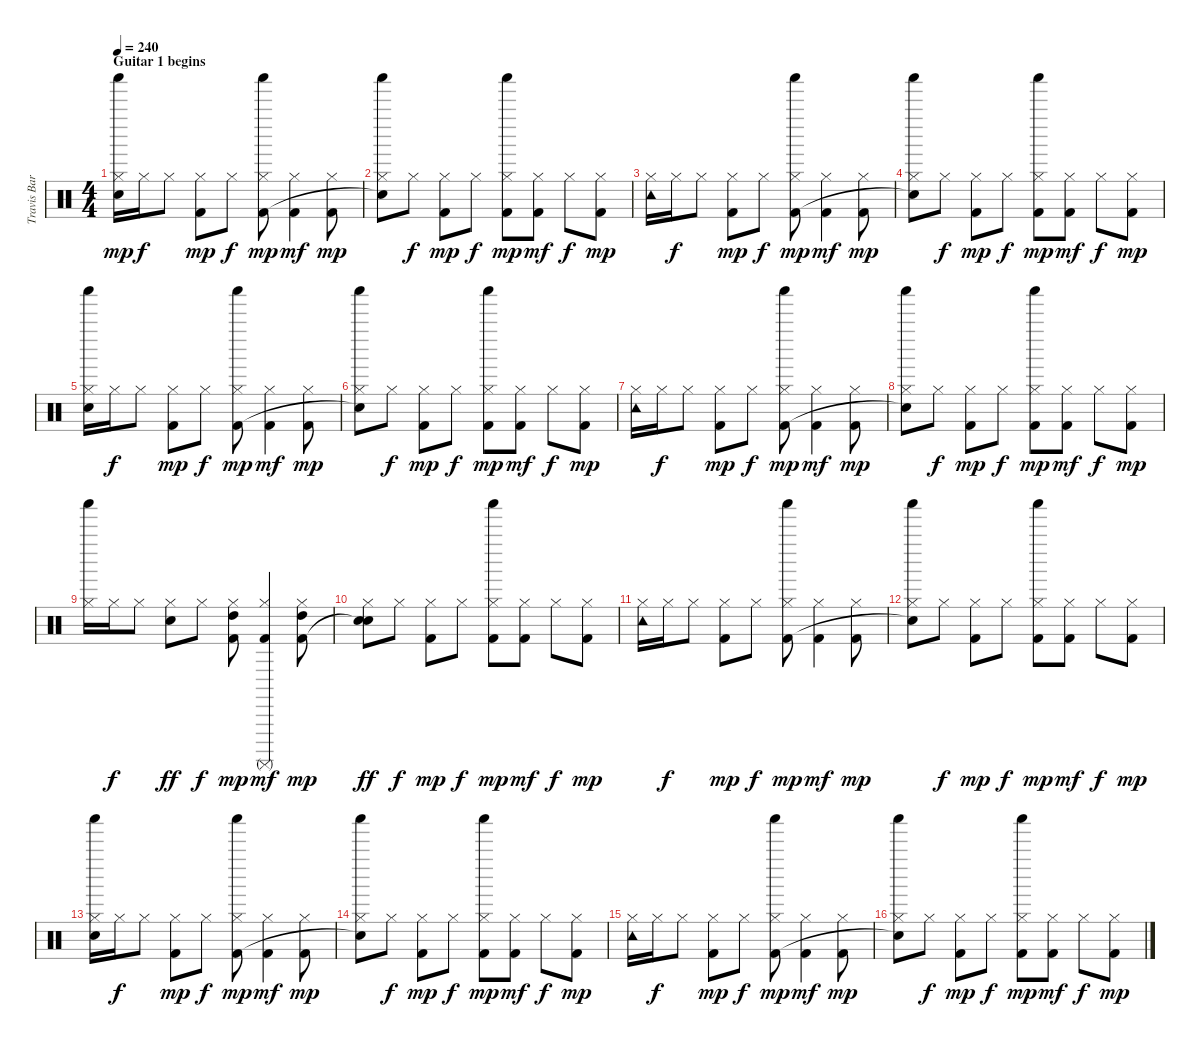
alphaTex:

\track ("Travis Barker - Drums" "Travis Bar") {instrument percussion}
\staff {score}
\articulation defaults
\ts (4 4)
\section ("" "Guitar 1 begins")
\tempo 240
\clef neutral
\ks c
("Hi-Hat (closed)" "Shaker (hit)" "Electric Snare (hit)").16{dy mp} "Hi-Hat (closed)".16{dy f} "Hi-Hat (closed)".8 ("Hi-Hat (closed)" "Kick (hit) 2").8{dy mp} "Hi-Hat (closed)".8{dy f} ("Hi-Hat (closed)" "Shaker (hit)" "Kick (hit) 2").8{dy mp} ("Hi-Hat (closed)" "Kick (hit) 2").4{dy mf} ("Hi-Hat (closed)" "Kick (hit) 2").8{dy mp} |
("Hi-Hat (closed)" "Shaker (hit)" "Snare (hit)"{t}).8 "Hi-Hat (closed)".8{dy f} ("Hi-Hat (closed)" "Kick (hit) 2").8{dy mp} "Hi-Hat (closed)".8{dy f} ("Hi-Hat (closed)" "Shaker (hit)" "Kick (hit) 2").8{dy mp} ("Hi-Hat (closed)" "Kick (hit) 2").8{dy mf} "Hi-Hat (closed)".8{dy f} ("Hi-Hat (closed)" "Kick (hit) 2").8{dy mp} |
("Hi-Hat (closed)" "Tambourine (hit)").16 "Hi-Hat (closed)".16{dy f} "Hi-Hat (closed)".8 ("Hi-Hat (closed)" "Kick (hit) 2").8{dy mp} "Hi-Hat (closed)".8{dy f} ("Hi-Hat (closed)" "Shaker (hit)" "Kick (hit) 2").8{dy mp} ("Hi-Hat (closed)" "Kick (hit) 2").4{dy mf} ("Hi-Hat (closed)" "Kick (hit) 2").8{dy mp} |
("Hi-Hat (closed)" "Shaker (hit)" "Snare (hit)"{t}).8 "Hi-Hat (closed)".8{dy f} ("Hi-Hat (closed)" "Kick (hit) 2").8{dy mp} "Hi-Hat (closed)".8{dy f} ("Hi-Hat (closed)" "Shaker (hit)" "Kick (hit) 2").8{dy mp} ("Hi-Hat (closed)" "Kick (hit) 2").8{dy mf} "Hi-Hat (closed)".8{dy f} ("Hi-Hat (closed)" "Kick (hit) 2").8{dy mp} |
("Hi-Hat (closed)" "Shaker (hit)" "Electric Snare (hit)").16 "Hi-Hat (closed)".16{dy f} "Hi-Hat (closed)".8 ("Hi-Hat (closed)" "Kick (hit) 2").8{dy mp} "Hi-Hat (closed)".8{dy f} ("Hi-Hat (closed)" "Shaker (hit)" "Kick (hit) 2").8{dy mp} ("Hi-Hat (closed)" "Kick (hit) 2").4{dy mf} ("Hi-Hat (closed)" "Kick (hit) 2").8{dy mp} |
("Hi-Hat (closed)" "Shaker (hit)" "Snare (hit)"{t}).8 "Hi-Hat (closed)".8{dy f} ("Hi-Hat (closed)" "Kick (hit) 2").8{dy mp} "Hi-Hat (closed)".8{dy f} ("Hi-Hat (closed)" "Shaker (hit)" "Kick (hit) 2").8{dy mp} ("Hi-Hat (closed)" "Kick (hit) 2").8{dy mf} "Hi-Hat (closed)".8{dy f} ("Hi-Hat (closed)" "Kick (hit) 2").8{dy mp} |
("Hi-Hat (closed)" "Tambourine (hit)").16 "Hi-Hat (closed)".16{dy f} "Hi-Hat (closed)".8 ("Hi-Hat (closed)" "Kick (hit) 2").8{dy mp} "Hi-Hat (closed)".8{dy f} ("Hi-Hat (closed)" "Shaker (hit)" "Kick (hit) 2").8{dy mp} ("Hi-Hat (closed)" "Kick (hit) 2").4{dy mf} ("Hi-Hat (closed)" "Kick (hit) 2").8{dy mp} |
("Hi-Hat (closed)" "Shaker (hit)" "Snare (hit)"{t}).8 "Hi-Hat (closed)".8{dy f} ("Hi-Hat (closed)" "Kick (hit) 2").8{dy mp} "Hi-Hat (closed)".8{dy f} ("Hi-Hat (closed)" "Shaker (hit)" "Kick (hit) 2").8{dy mp} ("Hi-Hat (closed)" "Kick (hit) 2").8{dy mf} "Hi-Hat (closed)".8{dy f} ("Hi-Hat (closed)" "Kick (hit) 2").8{dy mp} |
("Hi-Hat (closed)" "Shaker (hit)").16 "Hi-Hat (closed)".16{dy f} "Hi-Hat (closed)".8 ("Hi-Hat (closed)" "Electric Snare (hit)").8{dy ff} "Hi-Hat (closed)".8{dy f} ("Hi-Hat (closed)" "High Tom (hit)" "Kick (hit) 2").8{dy mp} ("Hi-Hat (closed)" "Surdo (mute)" "Kick (hit) 2").4{dy mf} ("Hi-Hat (closed)" "High Tom (hit)" "Kick (hit) 2").8{dy mp} |
("Hi-Hat (closed)" "Electric Snare (hit)" "Snare (hit)"{t}).8{dy ff} "Hi-Hat (closed)".8{dy f} ("Hi-Hat (closed)" "Kick (hit) 2").8{dy mp} "Hi-Hat (closed)".8{dy f} ("Hi-Hat (closed)" "Shaker (hit)" "Kick (hit) 2").8{dy mp} ("Hi-Hat (closed)" "Kick (hit) 2").8{dy mf} "Hi-Hat (closed)".8{dy f} ("Hi-Hat (closed)" "Kick (hit) 2").8{dy mp} |
("Hi-Hat (closed)" "Tambourine (hit)").16 "Hi-Hat (closed)".16{dy f} "Hi-Hat (closed)".8 ("Hi-Hat (closed)" "Kick (hit) 2").8{dy mp} "Hi-Hat (closed)".8{dy f} ("Hi-Hat (closed)" "Shaker (hit)" "Kick (hit) 2").8{dy mp} ("Hi-Hat (closed)" "Kick (hit) 2").4{dy mf} ("Hi-Hat (closed)" "Kick (hit) 2").8{dy mp} |
("Hi-Hat (closed)" "Shaker (hit)" "Snare (hit)"{t}).8 "Hi-Hat (closed)".8{dy f} ("Hi-Hat (closed)" "Kick (hit) 2").8{dy mp} "Hi-Hat (closed)".8{dy f} ("Hi-Hat (closed)" "Shaker (hit)" "Kick (hit) 2").8{dy mp} ("Hi-Hat (closed)" "Kick (hit) 2").8{dy mf} "Hi-Hat (closed)".8{dy f} ("Hi-Hat (closed)" "Kick (hit) 2").8{dy mp} |
("Hi-Hat (closed)" "Shaker (hit)" "Electric Snare (hit)").16 "Hi-Hat (closed)".16{dy f} "Hi-Hat (closed)".8 ("Hi-Hat (closed)" "Kick (hit) 2").8{dy mp} "Hi-Hat (closed)".8{dy f} ("Hi-Hat (closed)" "Shaker (hit)" "Kick (hit) 2").8{dy mp} ("Hi-Hat (closed)" "Kick (hit) 2").4{dy mf} ("Hi-Hat (closed)" "Kick (hit) 2").8{dy mp} |
("Hi-Hat (closed)" "Shaker (hit)" "Snare (hit)"{t}).8 "Hi-Hat (closed)".8{dy f} ("Hi-Hat (closed)" "Kick (hit) 2").8{dy mp} "Hi-Hat (closed)".8{dy f} ("Hi-Hat (closed)" "Shaker (hit)" "Kick (hit) 2").8{dy mp} ("Hi-Hat (closed)" "Kick (hit) 2").8{dy mf} "Hi-Hat (closed)".8{dy f} ("Hi-Hat (closed)" "Kick (hit) 2").8{dy mp} |
("Hi-Hat (closed)" "Tambourine (hit)").16 "Hi-Hat (closed)".16{dy f} "Hi-Hat (closed)".8 ("Hi-Hat (closed)" "Kick (hit) 2").8{dy mp} "Hi-Hat (closed)".8{dy f} ("Hi-Hat (closed)" "Shaker (hit)" "Kick (hit) 2").8{dy mp} ("Hi-Hat (closed)" "Kick (hit) 2").4{dy mf} ("Hi-Hat (closed)" "Kick (hit) 2").8{dy mp} |
("Hi-Hat (closed)" "Shaker (hit)" "Snare (hit)"{t}).8 "Hi-Hat (closed)".8{dy f} ("Hi-Hat (closed)" "Kick (hit) 2").8{dy mp} "Hi-Hat (closed)".8{dy f} ("Hi-Hat (closed)" "Shaker (hit)" "Kick (hit) 2").8{dy mp} ("Hi-Hat (closed)" "Kick (hit) 2").8{dy mf} "Hi-Hat (closed)".8{dy f} ("Hi-Hat (closed)" "Kick (hit) 2").8{dy mp}
